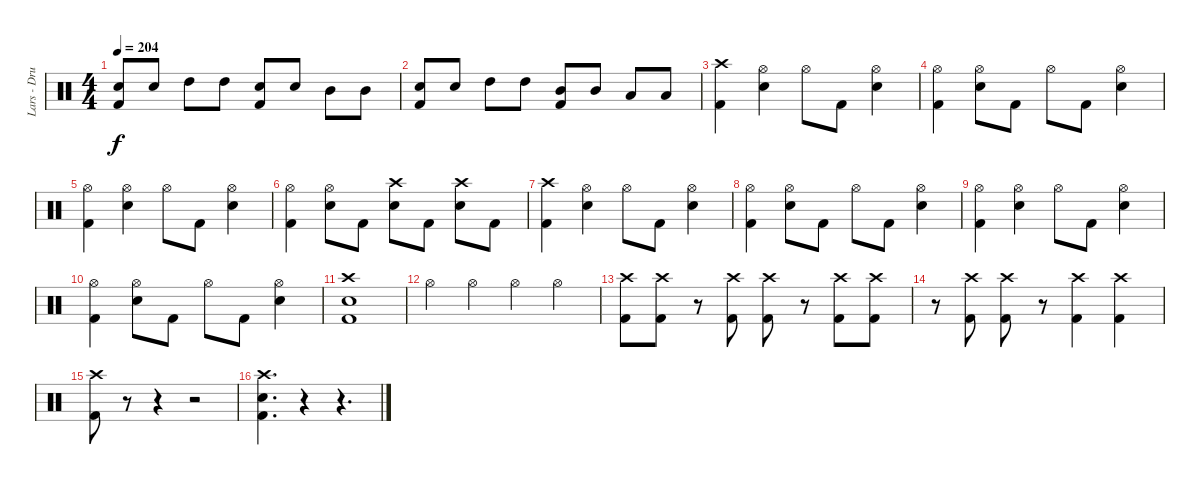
\track ("Lars - Drums" "Lars - Dru") {instrument percussion}
\staff {score}
\articulation defaults
\ts (4 4)
\tempo 204
\clef neutral
\ks c
("Electric Snare (hit)" "Kick (hit) 2").8{dy f} "Electric Snare (hit)".8 "High Tom (hit)".8 "High Tom (hit)".8 ("Electric Snare (hit)" "Kick (hit) 2").8 "Electric Snare (hit)".8 "Mid Tom (hit)".8 "Mid Tom (hit)".8 |
("Electric Snare (hit)" "Kick (hit) 2").8 "Electric Snare (hit)".8 "High Tom (hit)".8 "High Tom (hit)".8 ("Mid Tom (hit)" "Kick (hit) 2").8 "Mid Tom (hit)".8 "Low Tom (hit)".8 "Low Tom (hit)".8 |
("Crash high (hit)" "Kick (hit) 2").4 ("Hi-Hat (open)" "Electric Snare (hit)").4 "Hi-Hat (open)".8 "Kick (hit) 2".8 ("Hi-Hat (open)" "Electric Snare (hit)").4 |
("Hi-Hat (open)" "Kick (hit) 2").4 ("Hi-Hat (open)" "Electric Snare (hit)").8 "Kick (hit) 2".8 "Hi-Hat (open)".8 "Kick (hit) 2".8 ("Hi-Hat (open)" "Electric Snare (hit)").4 |
("Hi-Hat (open)" "Kick (hit) 2").4 ("Hi-Hat (open)" "Electric Snare (hit)").4 "Hi-Hat (open)".8 "Kick (hit) 2".8 ("Hi-Hat (open)" "Electric Snare (hit)").4 |
("Hi-Hat (open)" "Kick (hit) 2").4 ("Hi-Hat (open)" "Electric Snare (hit)").8 "Kick (hit) 2".8 ("Crash high (hit)" "Electric Snare (hit)").8 "Kick (hit) 2".8 ("Crash high (hit)" "Electric Snare (hit)").8 "Kick (hit) 2".8 |
("Crash high (hit)" "Kick (hit) 2").4 ("Hi-Hat (open)" "Electric Snare (hit)").4 "Hi-Hat (open)".8 "Kick (hit) 2".8 ("Hi-Hat (open)" "Electric Snare (hit)").4 |
("Hi-Hat (open)" "Kick (hit) 2").4 ("Hi-Hat (open)" "Electric Snare (hit)").8 "Kick (hit) 2".8 "Hi-Hat (open)".8 "Kick (hit) 2".8 ("Hi-Hat (open)" "Electric Snare (hit)").4 |
("Hi-Hat (open)" "Kick (hit) 2").4 ("Hi-Hat (open)" "Electric Snare (hit)").4 "Hi-Hat (open)".8 "Kick (hit) 2".8 ("Hi-Hat (open)" "Electric Snare (hit)").4 |
("Hi-Hat (open)" "Kick (hit) 2").4 ("Hi-Hat (open)" "Electric Snare (hit)").8 "Kick (hit) 2".8 "Hi-Hat (open)".8 "Kick (hit) 2".8 ("Hi-Hat (open)" "Electric Snare (hit)").4 |
("Crash high (hit)" "Electric Snare (hit)" "Kick (hit) 2").1 |
"Hi-Hat (open)".4 "Hi-Hat (open)".4 "Hi-Hat (open)".4 "Hi-Hat (open)".4 |
("Crash high (hit)" "Kick (hit) 2").8 ("Crash high (hit)" "Kick (hit) 2").8 r.8 ("Crash high (hit)" "Kick (hit) 2").8 ("Crash high (hit)" "Kick (hit) 2").8 r.8 ("Crash high (hit)" "Kick (hit) 2").8 ("Crash high (hit)" "Kick (hit) 2").8 |
r.8 ("Crash high (hit)" "Kick (hit) 2").8 ("Crash high (hit)" "Kick (hit) 2").8 r.8 ("Crash high (hit)" "Kick (hit) 2").4 ("Crash high (hit)" "Kick (hit) 2").4 |
("Crash high (hit)" "Kick (hit) 2").8 r.8 r.4 r.2 |
("Crash high (hit)" "Electric Snare (hit)" "Kick (hit) 2").4{d} r.4 r.4{d}
